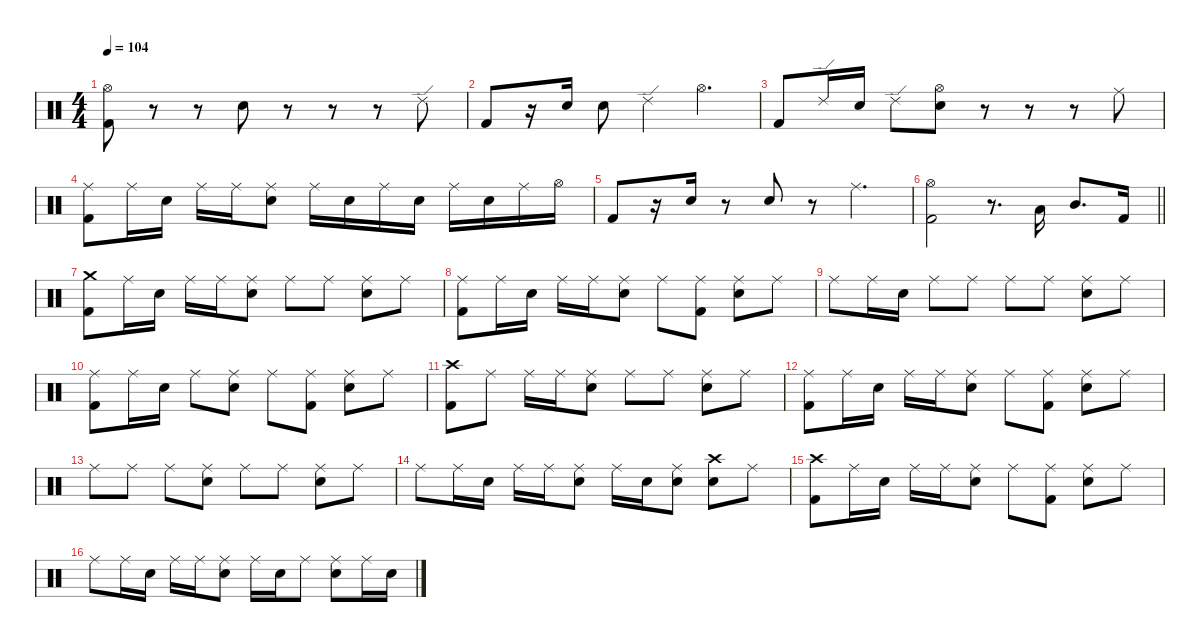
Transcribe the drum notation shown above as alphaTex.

\defaultSystemsLayout 4
\hideDynamics
\bracketExtendMode nobrackets
\singleTrackTrackNamePolicy hidden
\multiTrackTrackNamePolicy hidden
\firstSystemTrackNameMode fullname
\firstSystemTrackNameOrientation horizontal
\otherSystemsTrackNameOrientation horizontal
\track ("Drums" "drm.") {instrument percussion}
\staff {score}
\articulation defaults
\ts (4 4)
\tempo 104
\clef neutral
\ks c
("Hi-Hat (open)" "Kick (hit) 2").8{dy ff beam Down} r.8{beam Down} r.8{beam Down} "Snare (hit) 2".8{dy f beam Down} r.8{beam Down} r.8{beam Down} r.8{beam Down} "Ride (edge) 2".8{dy pp beam Down} |
"Kick (hit) 2".8{dy f beam Up} r.16{beam Up} "Snare (hit) 2".16{dy mf beam Up} "Snare (hit) 2".8{beam Down} "Ride (edge) 2".4{dy pp beam Down} "Hi-Hat (open)".4{d dy f beam Down} |
"Kick (hit) 2".8{dy ff beam Up} "Ride (edge) 2".16{dy pp beam Up} "Snare (hit) 2".16{beam Up} "Ride (edge) 2".8{beam Down} ("Hi-Hat (open)" "Snare (hit) 2").8{dy mf beam Down} r.8{beam Down} r.8{beam Down} r.8{beam Down} "Ride (middle)".8{beam Down} |
("Ride (middle)" "Kick (hit) 2").8{beam Down} "Ride (middle)".16{dy f beam Down} "Snare (hit) 2".16{dy mf beam Down} "Ride (middle)".16{beam Down} "Ride (middle)".16{beam Down} ("Ride (middle)" "Snare (hit) 2").8{beam Down} "Ride (middle)".16{beam Down} "Snare (hit) 2".16{beam Down} "Ride (middle)".16{beam Down} "Snare (hit) 2".16{beam Down} "Ride (middle)".16{beam Down} "Snare (hit) 2".16{beam Down} "Ride (middle)".16{beam Down} "Hi-Hat (open)".16{beam Down} |
"Kick (hit) 2".8{dy ff beam Up} r.16{beam Up} "Snare (hit) 2".16{dy f beam Up} r.8{beam Up} "Snare (hit) 2".8{beam Down} r.8{beam Down} "Ride (middle)".4{d dy ff beam Down} |
\barLineRight lightlight
("Hi-Hat (open)" "Kick (hit) 2").2{dy f beam Down} r.8{d beam Down} "Low Tom (hit)".16{dy fff beam Up} "Mid Tom (hit)".8{d beam Up} "Kick (hit) 2".16{beam Up} |
("Crash medium (hit)" "Kick (hit) 2").8{beam Down} "Ride (middle)".16{beam Down} "Snare (hit) 2".16{dy mf beam Down} "Ride (middle)".16{dy ff beam Down} "Ride (middle)".16{beam Down} ("Ride (middle)" "Snare (hit) 2").8{beam Down} "Ride (middle)".8{beam Down} "Ride (middle)".8{beam Down} ("Ride (middle)" "Snare (hit) 2").8{beam Down} "Ride (middle)".8{beam Down} |
("Ride (middle)" "Kick (hit) 2").8{beam Down} "Ride (middle)".16{beam Down} "Snare (hit) 2".16{dy mf beam Down} "Ride (middle)".16{dy ff beam Down} "Ride (middle)".16{beam Down} ("Ride (middle)" "Snare (hit) 2").8{beam Down} "Ride (middle)".8{beam Down} ("Ride (middle)" "Kick (hit) 2").8{beam Down} ("Ride (middle)" "Snare (hit) 2").8{beam Down} "Ride (middle)".8{beam Down} |
"Ride (middle)".8{beam Down} "Ride (middle)".16{beam Down} "Snare (hit) 2".16{dy mf beam Down} "Ride (middle)".8{dy ff beam Down} "Ride (middle)".8{beam Down} "Ride (middle)".8{beam Down} "Ride (middle)".8{beam Down} ("Ride (middle)" "Snare (hit) 2").8{beam Down} "Ride (middle)".8{beam Down} |
("Ride (middle)" "Kick (hit) 2").8{beam Down} "Ride (middle)".16{beam Down} "Snare (hit) 2".16{dy f beam Down} "Ride (middle)".8{dy ff beam Down} ("Ride (middle)" "Snare (hit) 2").8{beam Down} "Ride (middle)".8{beam Down} ("Ride (middle)" "Kick (hit) 2").8{beam Down} ("Ride (middle)" "Snare (hit) 2").8{beam Down} "Ride (middle)".8{beam Down} |
("Crash high (hit)" "Kick (hit) 2").8{beam Down} "Ride (middle)".8{beam Down} "Ride (middle)".16{beam Down} "Ride (middle)".16{beam Down} ("Ride (middle)" "Snare (hit) 2").8{beam Down} "Ride (middle)".8{beam Down} "Ride (middle)".8{beam Down} ("Ride (middle)" "Snare (hit) 2").8{beam Down} "Ride (middle)".8{beam Down} |
("Ride (middle)" "Kick (hit) 2").8{beam Down} "Ride (middle)".16{beam Down} "Snare (hit) 2".16{dy mf beam Down} "Ride (middle)".16{dy ff beam Down} "Ride (middle)".16{beam Down} ("Ride (middle)" "Snare (hit) 2").8{beam Down} "Ride (middle)".8{beam Down} ("Ride (middle)" "Kick (hit) 2").8{beam Down} ("Ride (middle)" "Snare (hit) 2").8{beam Down} "Ride (middle)".8{beam Down} |
"Ride (middle)".8{beam Down} "Ride (middle)".8{beam Down} "Ride (middle)".8{beam Down} ("Ride (middle)" "Snare (hit) 2").8{beam Down} "Ride (middle)".8{beam Down} "Ride (middle)".8{beam Down} ("Ride (middle)" "Snare (hit) 2").8{beam Down} "Ride (middle)".8{beam Down} |
"Ride (middle)".8{beam Down} "Ride (middle)".16{beam Down} "Snare (hit) 2".16{dy f beam Down} "Ride (middle)".16{dy ff beam Down} "Ride (middle)".16{beam Down} ("Ride (middle)" "Snare (hit) 2").8{beam Down} "Ride (middle)".16{beam Down} "Snare (hit) 2".16{dy f beam Down} ("Ride (middle)" "Snare (hit) 2").8{dy ff beam Down} ("Crash high (hit)" "Snare (hit) 2").8{dy f beam Down} "Ride (middle)".8{dy ff beam Down} |
("Crash high (hit)" "Kick (hit) 2").8{beam Down} "Ride (middle)".16{beam Down} "Snare (hit) 2".16{dy mf beam Down} "Ride (middle)".16{dy ff beam Down} "Ride (middle)".16{dy f beam Down} ("Ride (middle)" "Snare (hit) 2").8{dy ff beam Down} "Ride (middle)".8{beam Down} ("Ride (middle)" "Kick (hit) 2").8{beam Down} ("Ride (middle)" "Snare (hit) 2").8{beam Down} "Ride (middle)".8{beam Down} |
"Ride (middle)".8{beam Down} "Ride (middle)".16{beam Down} "Snare (hit) 2".16{dy mf beam Down} "Ride (middle)".16{dy ff beam Down} "Ride (middle)".16{dy f beam Down} ("Ride (middle)" "Snare (hit) 2").8{dy ff beam Down} "Ride (middle)".16{beam Down} "Snare (hit) 2".16{dy mf beam Down} "Ride (middle)".8{dy ff beam Down} ("Ride (middle)" "Snare (hit) 2").8{beam Down} "Ride (middle)".16{beam Down} "Snare (hit) 2".16{dy mp beam Down}
